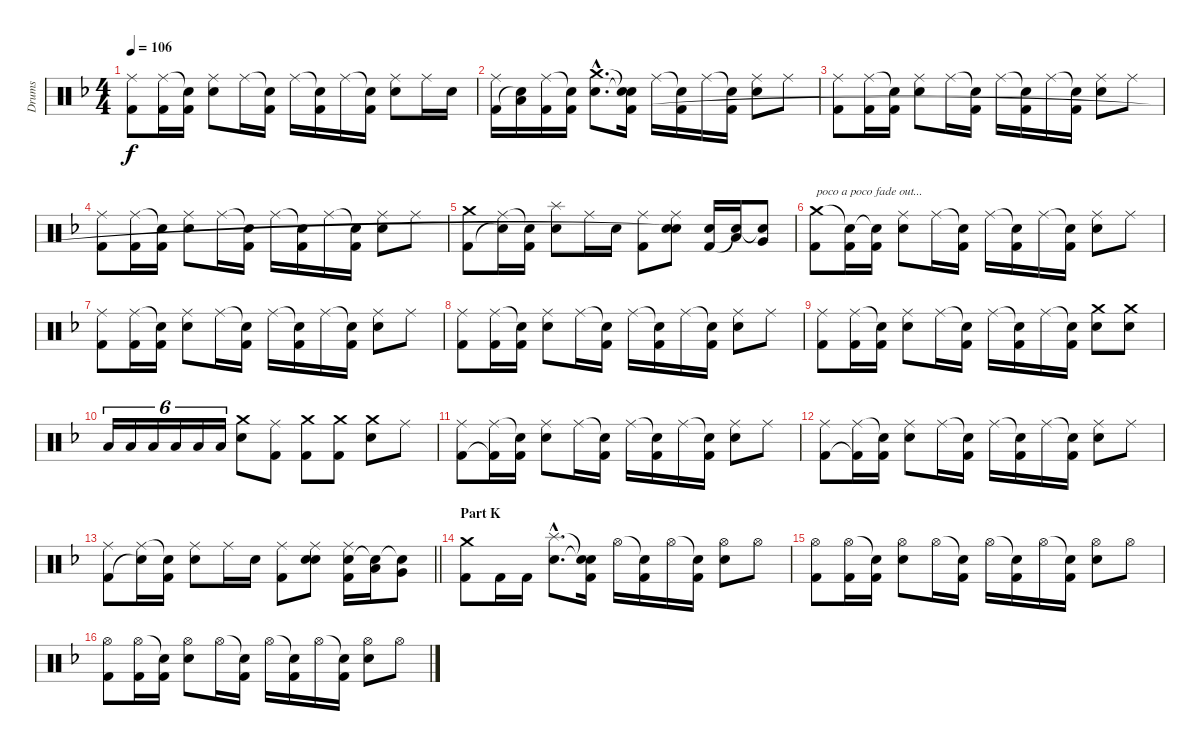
\track ("Drums" "Drums") {instrument percussion}
\staff {score}
\articulation defaults
\ts (4 4)
\tempo 106
\clef neutral
\ks f
("Ride (middle)" "Kick (hit) 2").8{dy f} ("Ride (middle)" "Kick (hit) 2").16 ("Snare (hit)"{t} "Kick (hit) 2").16 ("Ride (middle)" "Electric Snare (hit)").8 "Ride (middle)".16 ("Snare (hit)"{t} "Kick (hit) 2").16 "Ride (middle)".16 ("Snare (hit)"{t} "Kick (hit) 2").16 "Ride (middle)".16 ("Snare (hit)"{t} "Kick (hit) 2").16 ("Ride (middle)" "Electric Snare (hit)").8 "Ride (middle)".16 "Electric Snare (hit)".16 |
("Ride (middle)" "Kick (hit) 2").16 ("Low Tom (hit)" "Snare (hit)"{t}).16 ("Ride (middle)" "Kick (hit) 2").16 ("Snare (hit)"{t} "Kick (hit) 2").16 ("Crash medium (hit)"{hac} "Electric Snare (hit)"{hac}).8{d} ("Snare (hit)"{t} "Snare (hit)"{t} "Kick (hit) 2").16 "Ride (middle)".16 ("Snare (hit)"{t} "Kick (hit) 2").16 "Ride (middle)".16 ("Snare (hit)"{t} "Kick (hit) 2").16 ("Ride (middle)" "Electric Snare (hit)").8 "Ride (middle)".8 |
("Ride (middle)" "Kick (hit) 2").8 ("Ride (middle)" "Kick (hit) 2").16 ("Snare (hit)"{t} "Kick (hit) 2").16 ("Ride (middle)" "Electric Snare (hit)").8 "Ride (middle)".16 ("Snare (hit)"{t} "Kick (hit) 2").16 "Ride (middle)".16 ("Snare (hit)"{t} "Kick (hit) 2").16 "Ride (middle)".16 ("Snare (hit)"{t} "Kick (hit) 2").16 ("Ride (middle)" "Electric Snare (hit)").8 "Ride (middle)".8 |
("Ride (middle)" "Kick (hit) 2").8 ("Ride (middle)" "Kick (hit) 2").16 ("Snare (hit)"{t} "Kick (hit) 2").16 ("Ride (middle)" "Electric Snare (hit)").8 "Ride (middle)".16 ("Snare (hit)"{t} "Kick (hit) 2").16 "Ride (middle)".16 ("Snare (hit)"{t} "Kick (hit) 2").16 "Ride (middle)".16 ("Snare (hit)"{t} "Kick (hit) 2").16 ("Ride (middle)" "Electric Snare (hit)").8 "Ride (middle)".8 |
("Crash medium (hit)" "Kick (hit) 2").8 ("Ride (middle)" "Snare (hit)"{t}).16 ("Snare (hit)"{t} "Kick (hit) 2").16 ("Splash (hit)" "Electric Snare (hit)").8 "Ride (middle)".16 "Electric Snare (hit)".16 ("Ride (middle)" "Kick (hit) 2").8 ("Ride (middle)" "Electric Snare (hit)" "Snare (hit)"{t}).8 ("Electric Snare (hit)" "Kick (hit) 2").16 ("Low Tom (hit)" "Snare (hit)"{t}).16 ("Very Low Tom (hit)" "Snare (hit)"{t}).8 |
("Crash medium (hit)" "Kick (hit) 2").8{txt "poco a poco fade out..."} ("Snare (hit)"{t} "Kick (hit) 2").16 ("Snare (hit)"{t} "Kick (hit) 2").16 ("Ride (middle)" "Electric Snare (hit)").8 "Ride (middle)".16 ("Snare (hit)"{t} "Kick (hit) 2").16 "Ride (middle)".16 ("Snare (hit)"{t} "Kick (hit) 2").16 "Ride (middle)".16 ("Snare (hit)"{t} "Kick (hit) 2").16 ("Ride (middle)" "Electric Snare (hit)").8 "Ride (middle)".8 |
("Ride (middle)" "Kick (hit) 2").8{volume 12} ("Ride (middle)" "Kick (hit) 2").16 ("Snare (hit)"{t} "Kick (hit) 2").16 ("Ride (middle)" "Electric Snare (hit)").8 "Ride (middle)".16 ("Snare (hit)"{t} "Kick (hit) 2").16 "Ride (middle)".16 ("Snare (hit)"{t} "Kick (hit) 2").16 "Ride (middle)".16 ("Snare (hit)"{t} "Kick (hit) 2").16 ("Ride (middle)" "Electric Snare (hit)").8 "Ride (middle)".8 |
("Ride (middle)" "Kick (hit) 2").8{volume 11} ("Ride (middle)" "Kick (hit) 2").16 ("Snare (hit)"{t} "Kick (hit) 2").16 ("Ride (middle)" "Electric Snare (hit)").8 "Ride (middle)".16 ("Snare (hit)"{t} "Kick (hit) 2").16 "Ride (middle)".16 ("Snare (hit)"{t} "Kick (hit) 2").16 "Ride (middle)".16 ("Snare (hit)"{t} "Kick (hit) 2").16 ("Ride (middle)" "Electric Snare (hit)").8 "Ride (middle)".8 |
("Ride (middle)" "Kick (hit) 2").8 ("Ride (middle)" "Kick (hit) 2").16 ("Snare (hit)"{t} "Kick (hit) 2").16 ("Ride (middle)" "Electric Snare (hit)").8 "Ride (middle)".16 ("Snare (hit)"{t} "Kick (hit) 2").16 "Ride (middle)".16 ("Snare (hit)"{t} "Kick (hit) 2").16 "Ride (middle)".16 ("Snare (hit)"{t} "Kick (hit) 2").16 ("Crash medium (hit)" "Electric Snare (hit)").8 ("Crash medium (hit)" "Electric Snare (hit)").8 |
"Low Tom (hit)".16{tu (6 4) volume 10} "Low Tom (hit)".16{tu (6 4)} "Low Tom (hit)".16{tu (6 4)} "Low Tom (hit)".16{tu (6 4)} "Low Tom (hit)".16{tu (6 4)} "Low Tom (hit)".16{tu (6 4)} ("Crash medium (hit)" "Electric Snare (hit)").8 ("Ride (middle)" "Kick (hit) 2").8 ("Crash medium (hit)" "Kick (hit) 2").8 ("Crash medium (hit)" "Kick (hit) 2").8 ("Crash medium (hit)" "Electric Snare (hit)").8 "Ride (middle)".8 |
("Ride (middle)" "Kick (hit) 2").8 ("Ride (middle)" "Kick (hit) 2"{t}).16 ("Snare (hit)"{t} "Kick (hit) 2").16 ("Ride (middle)" "Electric Snare (hit)").8 "Ride (middle)".16 ("Snare (hit)"{t} "Kick (hit) 2").16 "Ride (middle)".16 ("Snare (hit)"{t} "Kick (hit) 2").16 "Ride (middle)".16 ("Snare (hit)"{t} "Kick (hit) 2").16 ("Ride (middle)" "Electric Snare (hit)").8 "Ride (middle)".8 |
("Ride (middle)" "Kick (hit) 2").8{volume 9} ("Ride (middle)" "Kick (hit) 2"{t}).16 ("Snare (hit)"{t} "Kick (hit) 2").16 ("Ride (middle)" "Electric Snare (hit)").8 "Ride (middle)".16 ("Snare (hit)"{t} "Kick (hit) 2").16 "Ride (middle)".16 ("Snare (hit)"{t} "Kick (hit) 2").16 "Ride (middle)".16 ("Snare (hit)"{t} "Kick (hit) 2").16 ("Ride (middle)" "Electric Snare (hit)").8 "Ride (middle)".8 |
\barLineRight lightlight
("Ride (middle)" "Kick (hit) 2").8 ("Ride (middle)" "Snare (hit)"{t}).16 ("Snare (hit)"{t} "Kick (hit) 2").16 ("Ride (middle)" "Electric Snare (hit)").8 "Ride (middle)".16 "Electric Snare (hit)".16 ("Ride (middle)" "Kick (hit) 2").8 ("Ride (middle)" "Electric Snare (hit)" "Snare (hit)").8 ("Ride (middle)" "Electric Snare (hit)" "Kick (hit) 2").16 ("Low Tom (hit)" "Snare (hit)"{t}).16 ("Very Low Tom (hit)" "Snare (hit)"{t}).8 |
\section ("" "Part K")
("Crash medium (hit)" "Kick (hit) 2").8{volume 8} "Kick (hit) 2".16 "Kick (hit) 2".16 ("Splash (hit)"{hac} "Electric Snare (hit)"{hac}).8{d} ("Snare (hit)"{t} "Snare (hit)"{t} "Kick (hit) 2").16 "Hi-Hat (open)".16 ("Snare (hit)"{t} "Kick (hit) 2").16 "Hi-Hat (open)".16 ("Snare (hit)"{t} "Kick (hit) 2").16 ("Hi-Hat (open)" "Electric Snare (hit)").8 "Hi-Hat (open)".8 |
("Hi-Hat (open)" "Kick (hit) 2").8 ("Hi-Hat (open)" "Kick (hit) 2").16 ("Snare (hit)"{t} "Kick (hit) 2").16 ("Hi-Hat (open)" "Electric Snare (hit)").8 "Hi-Hat (open)".16 ("Snare (hit)"{t} "Kick (hit) 2").16 "Hi-Hat (open)".16 ("Snare (hit)"{t} "Kick (hit) 2").16 "Hi-Hat (open)".16 ("Snare (hit)"{t} "Kick (hit) 2").16 ("Hi-Hat (open)" "Electric Snare (hit)").8 "Hi-Hat (open)".8 |
("Hi-Hat (open)" "Kick (hit) 2").8{volume 7} ("Hi-Hat (open)" "Kick (hit) 2").16 ("Snare (hit)"{t} "Kick (hit) 2").16 ("Hi-Hat (open)" "Electric Snare (hit)").8 "Hi-Hat (open)".16 ("Snare (hit)"{t} "Kick (hit) 2").16 "Hi-Hat (open)".16 ("Snare (hit)"{t} "Kick (hit) 2").16 "Hi-Hat (open)".16 ("Snare (hit)"{t} "Kick (hit) 2").16 ("Hi-Hat (open)" "Electric Snare (hit)").8 "Hi-Hat (open)".8
